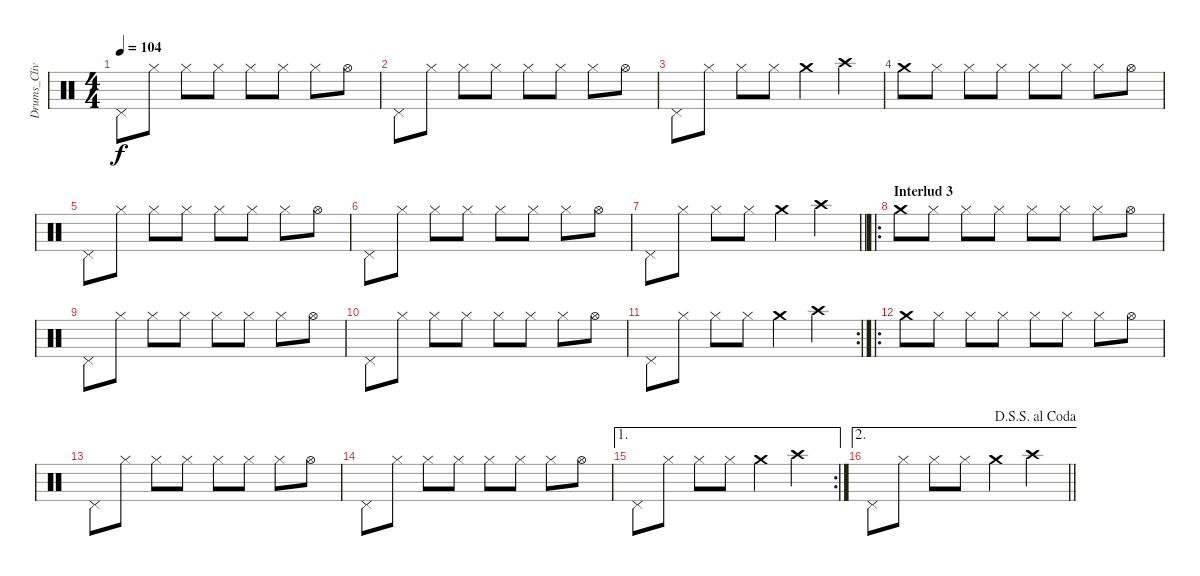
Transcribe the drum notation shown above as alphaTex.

\track ("Drums_CliveBurr" "Drums_Cliv") {instrument percussion}
\staff {score}
\articulation defaults
\ts (4 4)
\tempo 104
\clef neutral
\ks c "Pedal Hi-Hat (hit)".8{dy f} "Hi-Hat (closed)".8 "Hi-Hat (closed)".8 "Hi-Hat (closed)".8 "Hi-Hat (closed)".8 "Hi-Hat (closed)".8 "Hi-Hat (closed)".8 "Hi-Hat (open)".8
|
"Pedal Hi-Hat (hit)".8 "Hi-Hat (closed)".8 "Hi-Hat (closed)".8 "Hi-Hat (closed)".8 "Hi-Hat (closed)".8 "Hi-Hat (closed)".8 "Hi-Hat (closed)".8 "Hi-Hat (open)".8 |
"Pedal Hi-Hat (hit)".8 "Hi-Hat (closed)".8 "Hi-Hat (closed)".8 "Hi-Hat (closed)".8 "Crash medium (hit)".4 "Crash high (hit)".4 |
"Crash medium (hit)".8 "Hi-Hat (closed)".8 "Hi-Hat (closed)".8 "Hi-Hat (closed)".8 "Hi-Hat (closed)".8 "Hi-Hat (closed)".8 "Hi-Hat (closed)".8 "Hi-Hat (open)".8 |
"Pedal Hi-Hat (hit)".8 "Hi-Hat (closed)".8 "Hi-Hat (closed)".8 "Hi-Hat (closed)".8 "Hi-Hat (closed)".8 "Hi-Hat (closed)".8 "Hi-Hat (closed)".8 "Hi-Hat (open)".8 |
"Pedal Hi-Hat (hit)".8 "Hi-Hat (closed)".8 "Hi-Hat (closed)".8 "Hi-Hat (closed)".8 "Hi-Hat (closed)".8 "Hi-Hat (closed)".8 "Hi-Hat (closed)".8 "Hi-Hat (open)".8 |
\barLineRight lightlight "Pedal Hi-Hat (hit)".8 "Hi-Hat (closed)".8 "Hi-Hat (closed)".8 "Hi-Hat (closed)".8 "Crash medium (hit)".4 "Crash high (hit)".4
|
\ro
\section ("" "Interlud 3")
"Crash medium (hit)".8 "Hi-Hat (closed)".8 "Hi-Hat (closed)".8 "Hi-Hat (closed)".8 "Hi-Hat (closed)".8 "Hi-Hat (closed)".8 "Hi-Hat (closed)".8 "Hi-Hat (open)".8 |
"Pedal Hi-Hat (hit)".8 "Hi-Hat (closed)".8 "Hi-Hat (closed)".8 "Hi-Hat (closed)".8 "Hi-Hat (closed)".8 "Hi-Hat (closed)".8 "Hi-Hat (closed)".8 "Hi-Hat (open)".8 |
"Pedal Hi-Hat (hit)".8 "Hi-Hat (closed)".8 "Hi-Hat (closed)".8 "Hi-Hat (closed)".8 "Hi-Hat (closed)".8 "Hi-Hat (closed)".8 "Hi-Hat (closed)".8 "Hi-Hat (open)".8 |
\rc 2 "Pedal Hi-Hat (hit)".8 "Hi-Hat (closed)".8 "Hi-Hat (closed)".8 "Hi-Hat (closed)".8 "Crash medium (hit)".4 "Crash high (hit)".4
|
\ro "Crash medium (hit)".8 "Hi-Hat (closed)".8 "Hi-Hat (closed)".8 "Hi-Hat (closed)".8 "Hi-Hat (closed)".8 "Hi-Hat (closed)".8 "Hi-Hat (closed)".8 "Hi-Hat (open)".8
|
"Pedal Hi-Hat (hit)".8 "Hi-Hat (closed)".8 "Hi-Hat (closed)".8 "Hi-Hat (closed)".8 "Hi-Hat (closed)".8 "Hi-Hat (closed)".8 "Hi-Hat (closed)".8 "Hi-Hat (open)".8 |
"Pedal Hi-Hat (hit)".8 "Hi-Hat (closed)".8 "Hi-Hat (closed)".8 "Hi-Hat (closed)".8 "Hi-Hat (closed)".8 "Hi-Hat (closed)".8 "Hi-Hat (closed)".8 "Hi-Hat (open)".8 |
\ae 1
\rc 2 "Pedal Hi-Hat (hit)".8 "Hi-Hat (closed)".8 "Hi-Hat (closed)".8 "Hi-Hat (closed)".8 "Crash medium (hit)".4 "Crash high (hit)".4
|
\ae 2
\jump dalsegnosegnoalcoda
\barLineRight lightlight "Pedal Hi-Hat (hit)".8 "Hi-Hat (closed)".8 "Hi-Hat (closed)".8 "Hi-Hat (closed)".8 "Crash medium (hit)".4 "Crash high (hit)".4
